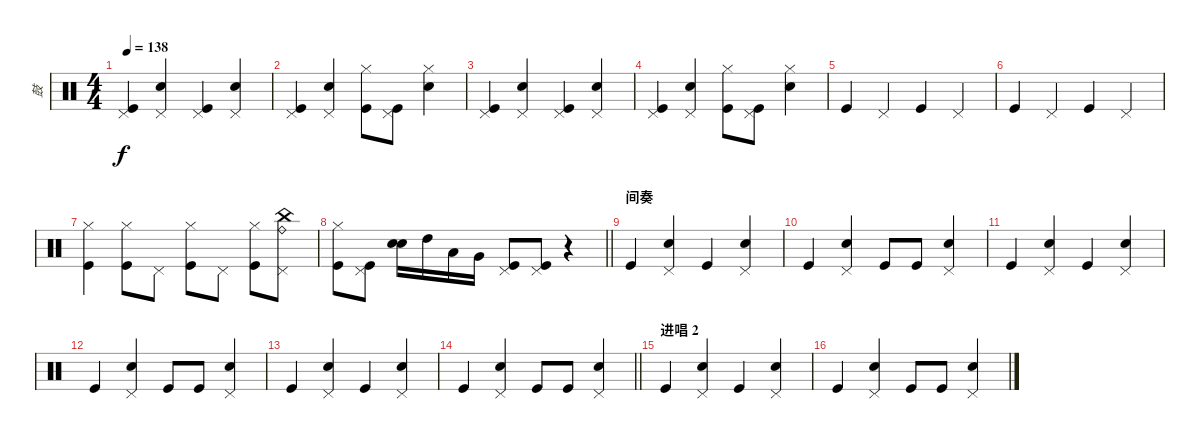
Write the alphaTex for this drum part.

\track ("鼓" "鼓") {instrument percussion}
\staff {score}
\articulation defaults
\ts (4 4)
\tempo 138
\clef neutral
\ks c
("Kick (hit)" "Pedal Hi-Hat (hit)").4{dy f} ("Snare (hit) 2" "Pedal Hi-Hat (hit)").4 ("Kick (hit)" "Pedal Hi-Hat (hit)").4 ("Snare (hit) 2" "Pedal Hi-Hat (hit)").4 |
("Kick (hit)" "Pedal Hi-Hat (hit)").4 ("Snare (hit) 2" "Pedal Hi-Hat (hit)").4 ("Kick (hit)" "Hi-Hat (closed)").8 ("Kick (hit)" "Pedal Hi-Hat (hit)").8 ("Snare (hit) 2" "Hi-Hat (closed)").4 |
("Kick (hit)" "Pedal Hi-Hat (hit)").4 ("Snare (hit) 2" "Pedal Hi-Hat (hit)").4 ("Kick (hit)" "Pedal Hi-Hat (hit)").4 ("Snare (hit) 2" "Pedal Hi-Hat (hit)").4 |
("Kick (hit)" "Pedal Hi-Hat (hit)").4 ("Snare (hit) 2" "Pedal Hi-Hat (hit)").4 ("Kick (hit)" "Hi-Hat (closed)").8 ("Kick (hit)" "Pedal Hi-Hat (hit)").8 ("Snare (hit) 2" "Hi-Hat (closed)").4 |
"Kick (hit)".4 "Pedal Hi-Hat (hit)".4 "Kick (hit)".4 "Pedal Hi-Hat (hit)".4 |
"Kick (hit)".4 "Pedal Hi-Hat (hit)".4 "Kick (hit)".4 "Pedal Hi-Hat (hit)".4 |
("Kick (hit)" "Hi-Hat (closed)").4 ("Kick (hit)" "Hi-Hat (closed)").8 "Pedal Hi-Hat (hit)".8 ("Kick (hit)" "Hi-Hat (closed)").8 "Pedal Hi-Hat (hit)".8 ("Kick (hit)" "Hi-Hat (closed)").8 ("China (hit)" "Ride (bell)" "Pedal Hi-Hat (hit)").8 |
\barLineRight lightlight
("Kick (hit)" "Hi-Hat (closed)").8 ("Kick (hit)" "Pedal Hi-Hat (hit)").8 ("Hand Clap (hit)" "Electric Snare (hit)").16 "High Tom (hit)".16 "Low Tom (hit)".16 "Very Low Tom (hit)".16 ("Kick (hit)" "Pedal Hi-Hat (hit)").8 ("Kick (hit)" "Pedal Hi-Hat (hit)").8 r.4 |
\section ("" "间奏")
"Kick (hit)".4 ("Snare (hit) 2" "Pedal Hi-Hat (hit)").4 "Kick (hit)".4 ("Snare (hit) 2" "Pedal Hi-Hat (hit)").4 |
"Kick (hit)".4 ("Snare (hit) 2" "Pedal Hi-Hat (hit)").4 "Kick (hit)".8 "Kick (hit)".8 ("Snare (hit) 2" "Pedal Hi-Hat (hit)").4 |
"Kick (hit)".4 ("Snare (hit) 2" "Pedal Hi-Hat (hit)").4 "Kick (hit)".4 ("Snare (hit) 2" "Pedal Hi-Hat (hit)").4 |
"Kick (hit)".4 ("Snare (hit) 2" "Pedal Hi-Hat (hit)").4 "Kick (hit)".8 "Kick (hit)".8 ("Snare (hit) 2" "Pedal Hi-Hat (hit)").4 |
"Kick (hit)".4 ("Snare (hit) 2" "Pedal Hi-Hat (hit)").4 "Kick (hit)".4 ("Snare (hit) 2" "Pedal Hi-Hat (hit)").4 |
\barLineRight lightlight "Kick (hit)".4
("Snare (hit) 2" "Pedal Hi-Hat (hit)").4 "Kick (hit)".8 "Kick (hit)".8 ("Snare (hit) 2" "Pedal Hi-Hat (hit)").4 |
\section ("" "进唱 2")
"Kick (hit)".4 ("Snare (hit) 2" "Pedal Hi-Hat (hit)").4 "Kick (hit)".4 ("Snare (hit) 2" "Pedal Hi-Hat (hit)").4 |
"Kick (hit)".4 ("Snare (hit) 2" "Pedal Hi-Hat (hit)").4 "Kick (hit)".8 "Kick (hit)".8 ("Snare (hit) 2" "Pedal Hi-Hat (hit)").4
